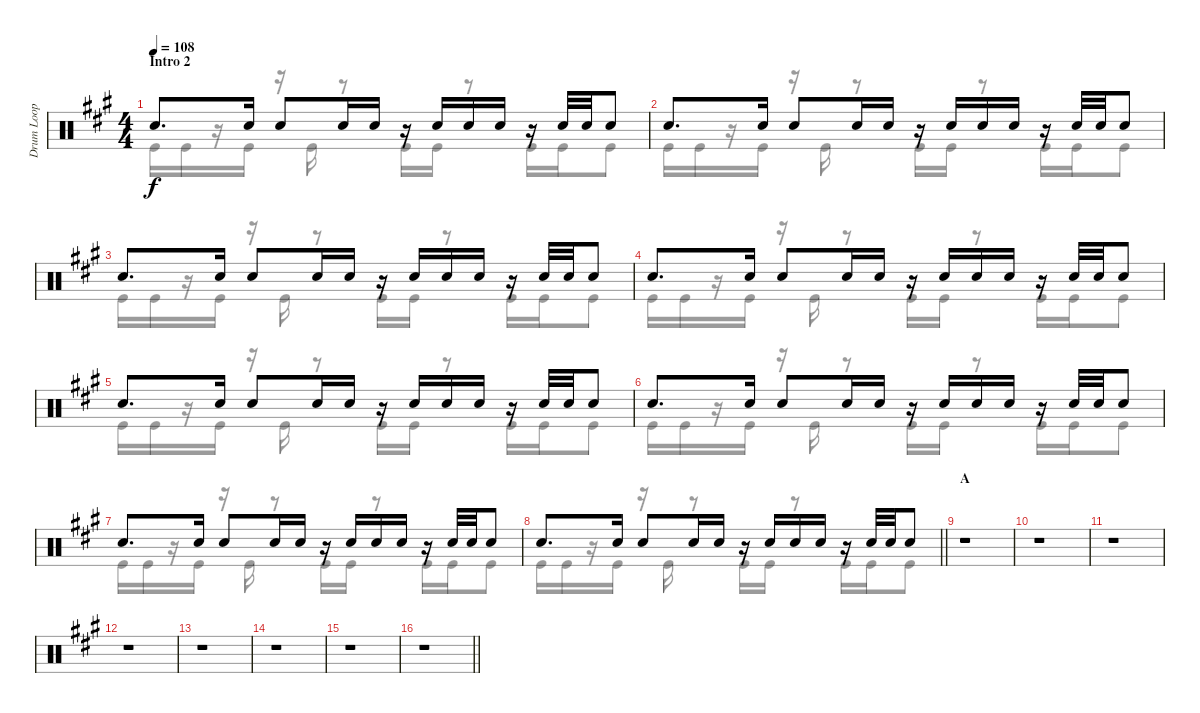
\track ("Drum Loop" "Drum Loop") {instrument percussion}
\staff {score}
\articulation defaults
\voice
\ts (4 4)
\section ("" "Intro 2")
\tempo 108
\clef neutral
\ks f#minor "Electric Snare (hit)".8{d dy f} "Electric Snare (hit)".16 "Electric Snare (hit)".8 "Electric Snare (hit)".16 "Electric Snare (hit)".16
r.16 "Electric Snare (hit)".16 "Electric Snare (hit)".16 "Electric Snare (hit)".16 r.16 "Electric Snare (hit)".32 "Electric Snare (hit)".32 "Electric Snare (hit)".8 |
"Electric Snare (hit)".8{d} "Electric Snare (hit)".16 "Electric Snare (hit)".8 "Electric Snare (hit)".16 "Electric Snare (hit)".16 r.16 "Electric Snare (hit)".16 "Electric Snare (hit)".16 "Electric Snare (hit)".16 r.16 "Electric Snare (hit)".32 "Electric Snare (hit)".32 "Electric Snare (hit)".8 |
"Electric Snare (hit)".8{d} "Electric Snare (hit)".16 "Electric Snare (hit)".8 "Electric Snare (hit)".16 "Electric Snare (hit)".16 r.16 "Electric Snare (hit)".16 "Electric Snare (hit)".16 "Electric Snare (hit)".16 r.16 "Electric Snare (hit)".32 "Electric Snare (hit)".32 "Electric Snare (hit)".8 |
"Electric Snare (hit)".8{d} "Electric Snare (hit)".16 "Electric Snare (hit)".8 "Electric Snare (hit)".16 "Electric Snare (hit)".16 r.16 "Electric Snare (hit)".16 "Electric Snare (hit)".16 "Electric Snare (hit)".16 r.16 "Electric Snare (hit)".32 "Electric Snare (hit)".32 "Electric Snare (hit)".8 |
"Electric Snare (hit)".8{d} "Electric Snare (hit)".16 "Electric Snare (hit)".8 "Electric Snare (hit)".16 "Electric Snare (hit)".16 r.16 "Electric Snare (hit)".16 "Electric Snare (hit)".16 "Electric Snare (hit)".16 r.16 "Electric Snare (hit)".32 "Electric Snare (hit)".32 "Electric Snare (hit)".8 |
"Electric Snare (hit)".8{d} "Electric Snare (hit)".16 "Electric Snare (hit)".8 "Electric Snare (hit)".16 "Electric Snare (hit)".16 r.16 "Electric Snare (hit)".16 "Electric Snare (hit)".16 "Electric Snare (hit)".16 r.16 "Electric Snare (hit)".32 "Electric Snare (hit)".32 "Electric Snare (hit)".8 |
"Electric Snare (hit)".8{d} "Electric Snare (hit)".16 "Electric Snare (hit)".8 "Electric Snare (hit)".16 "Electric Snare (hit)".16 r.16 "Electric Snare (hit)".16 "Electric Snare (hit)".16 "Electric Snare (hit)".16 r.16 "Electric Snare (hit)".32 "Electric Snare (hit)".32 "Electric Snare (hit)".8 |
\barLineRight lightlight "Electric Snare (hit)".8{d} "Electric Snare (hit)".16 "Electric Snare (hit)".8 "Electric Snare (hit)".16 "Electric Snare (hit)".16
r.16 "Electric Snare (hit)".16 "Electric Snare (hit)".16 "Electric Snare (hit)".16 r.16 "Electric Snare (hit)".32 "Electric Snare (hit)".32 "Electric Snare (hit)".8 |
\section ("" "A")
r.1 |
r.1 |
r.1 |
r.1 |
r.1 |
r.1 |
r.1 |
\barLineRight lightlight
r.1
\voice
\clef neutral
\ottava regular
\simile none
\ks f#minor "Kick (hit)".16{dy f} "Kick (hit)".16
r.16 "Kick (hit)".16 r.16 "Kick (hit)".16 r.8 "Kick (hit)".16 "Kick (hit)".16 r.8 "Kick (hit)".16 "Kick (hit)".16 "Kick (hit)".8 |
"Kick (hit)".16 "Kick (hit)".16 r.16 "Kick (hit)".16 r.16 "Kick (hit)".16 r.8 "Kick (hit)".16 "Kick (hit)".16 r.8 "Kick (hit)".16 "Kick (hit)".16 "Kick (hit)".8 |
"Kick (hit)".16 "Kick (hit)".16 r.16 "Kick (hit)".16 r.16 "Kick (hit)".16 r.8 "Kick (hit)".16 "Kick (hit)".16 r.8 "Kick (hit)".16 "Kick (hit)".16 "Kick (hit)".8 |
"Kick (hit)".16 "Kick (hit)".16 r.16 "Kick (hit)".16 r.16 "Kick (hit)".16 r.8 "Kick (hit)".16 "Kick (hit)".16 r.8 "Kick (hit)".16 "Kick (hit)".16 "Kick (hit)".8 |
"Kick (hit)".16 "Kick (hit)".16 r.16 "Kick (hit)".16 r.16 "Kick (hit)".16 r.8 "Kick (hit)".16 "Kick (hit)".16 r.8 "Kick (hit)".16 "Kick (hit)".16 "Kick (hit)".8 |
"Kick (hit)".16 "Kick (hit)".16 r.16 "Kick (hit)".16 r.16 "Kick (hit)".16 r.8 "Kick (hit)".16 "Kick (hit)".16 r.8 "Kick (hit)".16 "Kick (hit)".16 "Kick (hit)".8 |
"Kick (hit)".16 "Kick (hit)".16 r.16 "Kick (hit)".16 r.16 "Kick (hit)".16 r.8 "Kick (hit)".16 "Kick (hit)".16 r.8 "Kick (hit)".16 "Kick (hit)".16 "Kick (hit)".8 |
\barLineRight lightlight "Kick (hit)".16 "Kick (hit)".16
r.16 "Kick (hit)".16 r.16 "Kick (hit)".16 r.8 "Kick (hit)".16 "Kick (hit)".16 r.8 "Kick (hit)".16 "Kick (hit)".16 "Kick (hit)".8 |
r.1 |
r.1 |
r.1 |
r.1 |
r.1 |
r.1 |
r.1 |
\barLineRight lightlight
r.1
